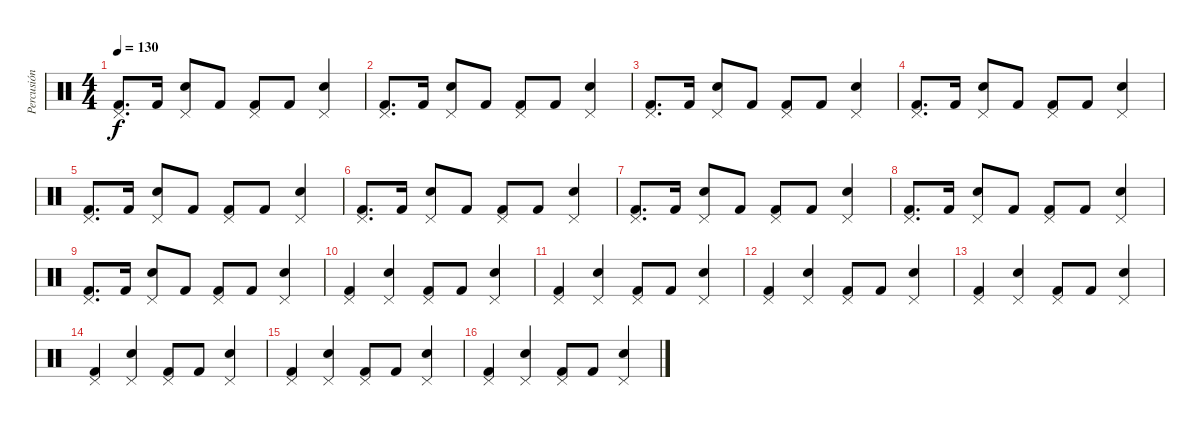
\track ("Percusión" "Percusión") {solo instrument percussion}
\staff {score}
\articulation defaults
\ts (4 4)
\tempo 130
\clef neutral
\ks c
("Kick (hit) 2" "Pedal Hi-Hat (hit)").8{d dy f} "Kick (hit) 2".16 ("Electric Snare (hit)" "Pedal Hi-Hat (hit)").8 "Kick (hit) 2".8 ("Kick (hit) 2" "Pedal Hi-Hat (hit)").8 "Kick (hit) 2".8 ("Electric Snare (hit)" "Pedal Hi-Hat (hit)").4 |
("Kick (hit) 2" "Pedal Hi-Hat (hit)").8{d} "Kick (hit) 2".16 ("Electric Snare (hit)" "Pedal Hi-Hat (hit)").8 "Kick (hit) 2".8 ("Kick (hit) 2" "Pedal Hi-Hat (hit)").8 "Kick (hit) 2".8 ("Electric Snare (hit)" "Pedal Hi-Hat (hit)").4 |
("Kick (hit) 2" "Pedal Hi-Hat (hit)").8{d} "Kick (hit) 2".16 ("Electric Snare (hit)" "Pedal Hi-Hat (hit)").8 "Kick (hit) 2".8 ("Kick (hit) 2" "Pedal Hi-Hat (hit)").8 "Kick (hit) 2".8 ("Electric Snare (hit)" "Pedal Hi-Hat (hit)").4 |
("Kick (hit) 2" "Pedal Hi-Hat (hit)").8{d} "Kick (hit) 2".16 ("Electric Snare (hit)" "Pedal Hi-Hat (hit)").8 "Kick (hit) 2".8 ("Kick (hit) 2" "Pedal Hi-Hat (hit)").8 "Kick (hit) 2".8 ("Electric Snare (hit)" "Pedal Hi-Hat (hit)").4 |
("Kick (hit) 2" "Pedal Hi-Hat (hit)").8{d} "Kick (hit) 2".16 ("Electric Snare (hit)" "Pedal Hi-Hat (hit)").8 "Kick (hit) 2".8 ("Kick (hit) 2" "Pedal Hi-Hat (hit)").8 "Kick (hit) 2".8 ("Electric Snare (hit)" "Pedal Hi-Hat (hit)").4 |
("Kick (hit) 2" "Pedal Hi-Hat (hit)").8{d} "Kick (hit) 2".16 ("Electric Snare (hit)" "Pedal Hi-Hat (hit)").8 "Kick (hit) 2".8 ("Kick (hit) 2" "Pedal Hi-Hat (hit)").8 "Kick (hit) 2".8 ("Electric Snare (hit)" "Pedal Hi-Hat (hit)").4 |
("Kick (hit) 2" "Pedal Hi-Hat (hit)").8{d} "Kick (hit) 2".16 ("Electric Snare (hit)" "Pedal Hi-Hat (hit)").8 "Kick (hit) 2".8 ("Kick (hit) 2" "Pedal Hi-Hat (hit)").8 "Kick (hit) 2".8 ("Electric Snare (hit)" "Pedal Hi-Hat (hit)").4 |
("Kick (hit) 2" "Pedal Hi-Hat (hit)").8{d} "Kick (hit) 2".16 ("Electric Snare (hit)" "Pedal Hi-Hat (hit)").8 "Kick (hit) 2".8 ("Kick (hit) 2" "Pedal Hi-Hat (hit)").8 "Kick (hit) 2".8 ("Electric Snare (hit)" "Pedal Hi-Hat (hit)").4 |
("Kick (hit) 2" "Pedal Hi-Hat (hit)").8{d} "Kick (hit) 2".16 ("Electric Snare (hit)" "Pedal Hi-Hat (hit)").8 "Kick (hit) 2".8 ("Kick (hit) 2" "Pedal Hi-Hat (hit)").8 "Kick (hit) 2".8 ("Electric Snare (hit)" "Pedal Hi-Hat (hit)").4 |
("Kick (hit) 2" "Pedal Hi-Hat (hit)").4 ("Electric Snare (hit)" "Pedal Hi-Hat (hit)").4 ("Kick (hit) 2" "Pedal Hi-Hat (hit)").8 "Kick (hit) 2".8 ("Electric Snare (hit)" "Pedal Hi-Hat (hit)").4 |
("Kick (hit) 2" "Pedal Hi-Hat (hit)").4 ("Electric Snare (hit)" "Pedal Hi-Hat (hit)").4 ("Kick (hit) 2" "Pedal Hi-Hat (hit)").8 "Kick (hit) 2".8 ("Electric Snare (hit)" "Pedal Hi-Hat (hit)").4 |
("Kick (hit) 2" "Pedal Hi-Hat (hit)").4 ("Electric Snare (hit)" "Pedal Hi-Hat (hit)").4 ("Kick (hit) 2" "Pedal Hi-Hat (hit)").8 "Kick (hit) 2".8 ("Electric Snare (hit)" "Pedal Hi-Hat (hit)").4 |
("Kick (hit) 2" "Pedal Hi-Hat (hit)").4 ("Electric Snare (hit)" "Pedal Hi-Hat (hit)").4 ("Kick (hit) 2" "Pedal Hi-Hat (hit)").8 "Kick (hit) 2".8 ("Electric Snare (hit)" "Pedal Hi-Hat (hit)").4 |
("Kick (hit) 2" "Pedal Hi-Hat (hit)").4 ("Electric Snare (hit)" "Pedal Hi-Hat (hit)").4 ("Kick (hit) 2" "Pedal Hi-Hat (hit)").8 "Kick (hit) 2".8 ("Electric Snare (hit)" "Pedal Hi-Hat (hit)").4 |
("Kick (hit) 2" "Pedal Hi-Hat (hit)").4 ("Electric Snare (hit)" "Pedal Hi-Hat (hit)").4 ("Kick (hit) 2" "Pedal Hi-Hat (hit)").8 "Kick (hit) 2".8 ("Electric Snare (hit)" "Pedal Hi-Hat (hit)").4 |
("Kick (hit) 2" "Pedal Hi-Hat (hit)").4 ("Electric Snare (hit)" "Pedal Hi-Hat (hit)").4 ("Kick (hit) 2" "Pedal Hi-Hat (hit)").8 "Kick (hit) 2".8 ("Electric Snare (hit)" "Pedal Hi-Hat (hit)").4
